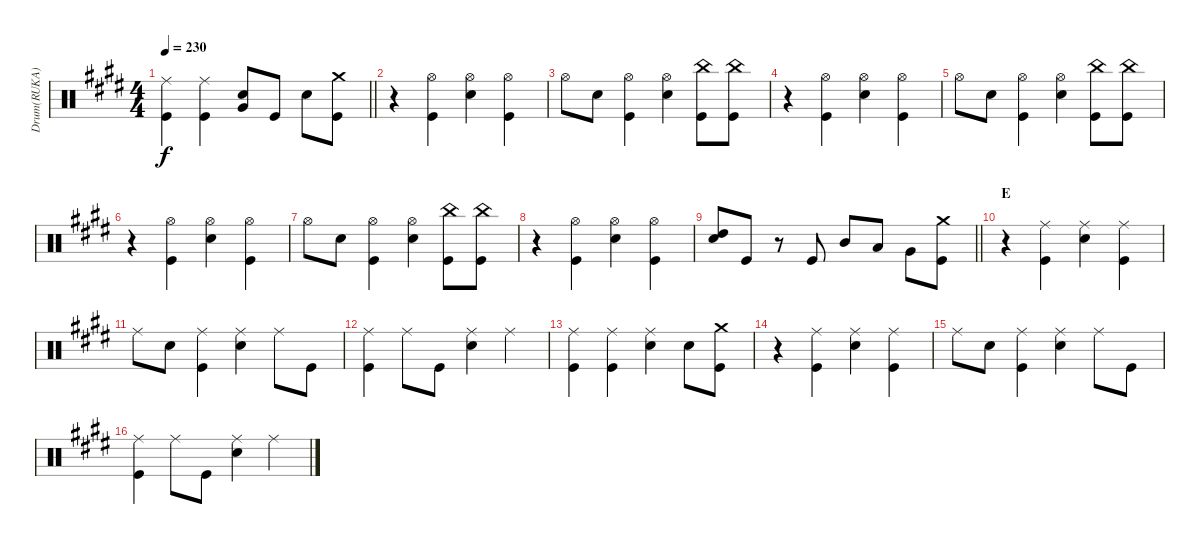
\track ("Drum(RUKA)" "Drum(RUKA)") {instrument percussion}
\staff {score}
\articulation defaults
\ts (4 4)
\tempo 230
\clef neutral
\barLineRight lightlight
\ks e
("Ride (middle)" "Kick (hit)").4{dy f} ("Ride (middle)" "Kick (hit)").4 ("Electric Snare (hit)" "Very Low Tom (hit)").8 "Kick (hit)".8 "Electric Snare (hit)".8 ("Crash medium (hit)" "Kick (hit)").8 |
r.4 ("Hi-Hat (open)" "Kick (hit)").4 ("Hi-Hat (open)" "Electric Snare (hit)").4 ("Hi-Hat (open)" "Kick (hit)").4 |
"Hi-Hat (open)".8 "Electric Snare (hit)".8 ("Hi-Hat (open)" "Kick (hit)").4 ("Hi-Hat (open)" "Electric Snare (hit)").4 ("China (hit)" "Kick (hit)").8 ("China (hit)" "Kick (hit)").8 |
r.4 ("Hi-Hat (open)" "Kick (hit)").4 ("Hi-Hat (open)" "Electric Snare (hit)").4 ("Hi-Hat (open)" "Kick (hit)").4 |
"Hi-Hat (open)".8 "Electric Snare (hit)".8 ("Hi-Hat (open)" "Kick (hit)").4 ("Hi-Hat (open)" "Electric Snare (hit)").4 ("China (hit)" "Kick (hit)").8 ("China (hit)" "Kick (hit)").8 |
r.4 ("Hi-Hat (open)" "Kick (hit)").4 ("Hi-Hat (open)" "Electric Snare (hit)").4 ("Hi-Hat (open)" "Kick (hit)").4 |
"Hi-Hat (open)".8 "Electric Snare (hit)".8 ("Hi-Hat (open)" "Kick (hit)").4 ("Hi-Hat (open)" "Electric Snare (hit)").4 ("China (hit)" "Kick (hit)").8 ("China (hit)" "Kick (hit)").8 |
r.4 ("Hi-Hat (open)" "Kick (hit)").4 ("Hi-Hat (open)" "Electric Snare (hit)").4 ("Hi-Hat (open)" "Kick (hit)").4 |
\barLineRight lightlight
("Electric Snare (hit)" "High Tom (hit)").8 "Kick (hit)".8 r.8 "Kick (hit)".8 "Mid Tom (hit)".8 "Low Tom (hit)".8 "Very Low Tom (hit)".8 ("Crash medium (hit)" "Kick (hit)").8 |
\section ("" "E")
r.4 ("Ride (middle)" "Kick (hit)").4 ("Ride (middle)" "Electric Snare (hit)").4 ("Ride (middle)" "Kick (hit)").4 |
"Ride (middle)".8 "Electric Snare (hit)".8 ("Ride (middle)" "Kick (hit)").4 ("Ride (middle)" "Electric Snare (hit)").4 "Ride (middle)".8 "Kick (hit)".8 |
("Ride (middle)" "Kick (hit)").4 "Ride (middle)".8 "Kick (hit)".8 ("Ride (middle)" "Electric Snare (hit)").4 "Ride (middle)".4 |
("Ride (middle)" "Kick (hit)").4 ("Ride (middle)" "Kick (hit)").4 ("Ride (middle)" "Electric Snare (hit)").4 "Electric Snare (hit)".8 ("Crash medium (hit)" "Kick (hit)").8 |
r.4 ("Ride (middle)" "Kick (hit)").4 ("Ride (middle)" "Electric Snare (hit)").4 ("Ride (middle)" "Kick (hit)").4 |
"Ride (middle)".8 "Electric Snare (hit)".8 ("Ride (middle)" "Kick (hit)").4 ("Ride (middle)" "Electric Snare (hit)").4 "Ride (middle)".8 "Kick (hit)".8 |
("Ride (middle)" "Kick (hit)").4 "Ride (middle)".8 "Kick (hit)".8 ("Ride (middle)" "Electric Snare (hit)").4 "Ride (middle)".4
